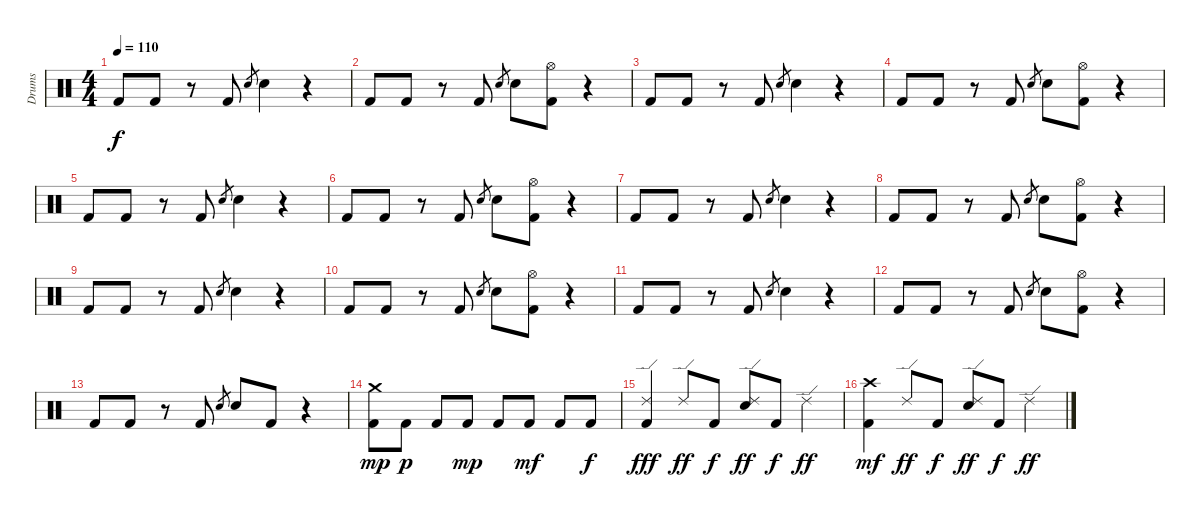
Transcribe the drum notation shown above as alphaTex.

\track ("Drums" "Drums") {instrument percussion}
\staff {score}
\articulation defaults
\ts (4 4)
\tempo 110
\clef neutral
\ks c "Kick (hit) 2".8{dy f} "Kick (hit) 2".8
r.8 "Kick (hit) 2".8 "Snare (hit) 2".8{gr} "Snare (hit) 2".4 r.4 |
"Kick (hit) 2".8 "Kick (hit) 2".8 r.8 "Kick (hit) 2".8 "Snare (hit) 2".8{gr} "Snare (hit) 2".8 ("Hi-Hat (open)" "Kick (hit) 2").8 r.4 |
"Kick (hit) 2".8 "Kick (hit) 2".8 r.8 "Kick (hit) 2".8 "Snare (hit) 2".8{gr} "Snare (hit) 2".4 r.4 |
"Kick (hit) 2".8 "Kick (hit) 2".8 r.8 "Kick (hit) 2".8 "Snare (hit) 2".8{gr} "Snare (hit) 2".8 ("Hi-Hat (open)" "Kick (hit) 2").8 r.4 |
"Kick (hit) 2".8 "Kick (hit) 2".8 r.8 "Kick (hit) 2".8 "Snare (hit) 2".8{gr} "Snare (hit) 2".4 r.4 |
"Kick (hit) 2".8 "Kick (hit) 2".8 r.8 "Kick (hit) 2".8 "Snare (hit) 2".8{gr} "Snare (hit) 2".8 ("Hi-Hat (open)" "Kick (hit) 2").8 r.4 |
"Kick (hit) 2".8 "Kick (hit) 2".8 r.8 "Kick (hit) 2".8 "Snare (hit) 2".8{gr} "Snare (hit) 2".4 r.4 |
"Kick (hit) 2".8 "Kick (hit) 2".8 r.8 "Kick (hit) 2".8 "Snare (hit) 2".8{gr} "Snare (hit) 2".8 ("Hi-Hat (open)" "Kick (hit) 2").8 r.4 |
"Kick (hit) 2".8 "Kick (hit) 2".8 r.8 "Kick (hit) 2".8 "Snare (hit) 2".8{gr} "Snare (hit) 2".4 r.4 |
"Kick (hit) 2".8 "Kick (hit) 2".8 r.8 "Kick (hit) 2".8 "Snare (hit) 2".8{gr} "Snare (hit) 2".8 ("Hi-Hat (open)" "Kick (hit) 2").8 r.4 |
"Kick (hit) 2".8 "Kick (hit) 2".8 r.8 "Kick (hit) 2".8 "Snare (hit) 2".8{gr} "Snare (hit) 2".4 r.4 |
"Kick (hit) 2".8 "Kick (hit) 2".8 r.8 "Kick (hit) 2".8 "Snare (hit) 2".8{gr} "Snare (hit) 2".8 ("Hi-Hat (open)" "Kick (hit) 2").8 r.4 |
"Kick (hit) 2".8 "Kick (hit) 2".8 r.8 "Kick (hit) 2".8 "Snare (hit) 2".8{gr} "Snare (hit) 2".8 "Kick (hit) 2".8 r.4 |
("Crash medium (hit)" "Kick (hit) 2").8{dy mp} "Kick (hit) 2".8{dy p} "Kick (hit) 2".8 "Kick (hit) 2".8{dy mp} "Kick (hit) 2".8 "Kick (hit) 2".8{dy mf} "Kick (hit) 2".8 "Kick (hit) 2".8{dy f} |
("Ride (edge) 2" "Kick (hit) 2").4{dy fff} "Ride (edge) 2".8{dy ff} "Kick (hit) 2".8{dy f} ("Ride (edge) 2" "Snare (hit) 2").8{dy ff} "Kick (hit) 2".8{dy f} "Ride (edge) 2".4{dy ff} |
("Crash high (hit)" "Kick (hit) 2").4{dy mf} "Ride (edge) 2".8{dy ff} "Kick (hit) 2".8{dy f} ("Ride (edge) 2" "Snare (hit) 2").8{dy ff} "Kick (hit) 2".8{dy f} "Ride (edge) 2".4{dy ff}
